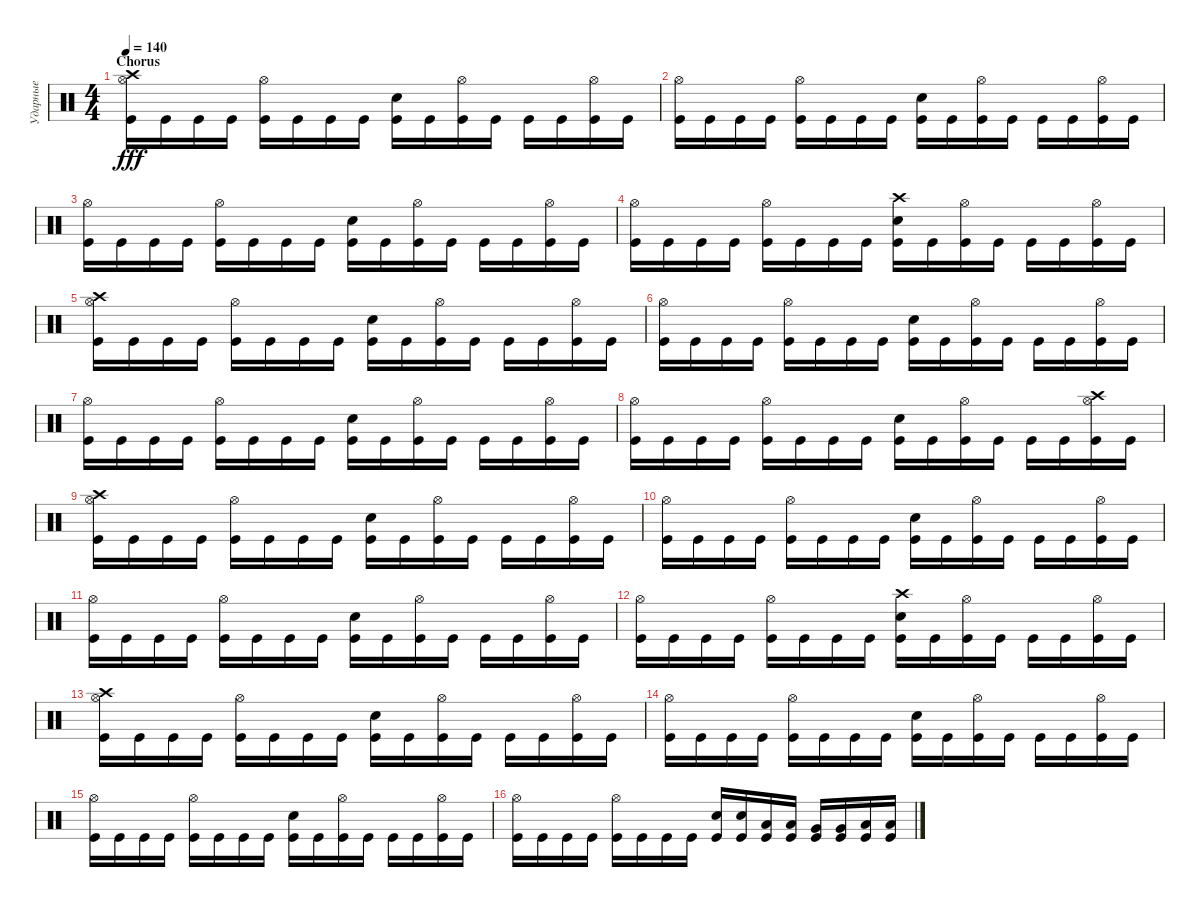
\track ("Ударные" "Ударные") {instrument percussion}
\staff {score}
\articulation defaults
\ts (4 4)
\section ("" "Chorus")
\tempo 140
\clef neutral
\ks c
("Kick (hit)" "Hi-Hat (open)" "Crash high (hit)").16{dy fff} "Kick (hit)".16 "Kick (hit)".16 "Kick (hit)".16 ("Kick (hit)" "Hi-Hat (open)").16 "Kick (hit)".16 "Kick (hit)".16 "Kick (hit)".16 ("Kick (hit)" "Snare (hit) 2").16 "Kick (hit)".16 ("Kick (hit)" "Hi-Hat (open)").16 "Kick (hit)".16 "Kick (hit)".16 "Kick (hit)".16 ("Kick (hit)" "Hi-Hat (open)").16 "Kick (hit)".16 |
("Kick (hit)" "Hi-Hat (open)").16 "Kick (hit)".16 "Kick (hit)".16 "Kick (hit)".16 ("Kick (hit)" "Hi-Hat (open)").16 "Kick (hit)".16 "Kick (hit)".16 "Kick (hit)".16 ("Kick (hit)" "Snare (hit) 2").16 "Kick (hit)".16 ("Kick (hit)" "Hi-Hat (open)").16 "Kick (hit)".16 "Kick (hit)".16 "Kick (hit)".16 ("Kick (hit)" "Hi-Hat (open)").16 "Kick (hit)".16 |
("Kick (hit)" "Hi-Hat (open)").16 "Kick (hit)".16 "Kick (hit)".16 "Kick (hit)".16 ("Kick (hit)" "Hi-Hat (open)").16 "Kick (hit)".16 "Kick (hit)".16 "Kick (hit)".16 ("Kick (hit)" "Snare (hit) 2").16 "Kick (hit)".16 ("Kick (hit)" "Hi-Hat (open)").16 "Kick (hit)".16 "Kick (hit)".16 "Kick (hit)".16 ("Kick (hit)" "Hi-Hat (open)").16 "Kick (hit)".16 |
("Kick (hit)" "Hi-Hat (open)").16 "Kick (hit)".16 "Kick (hit)".16 "Kick (hit)".16 ("Kick (hit)" "Hi-Hat (open)").16 "Kick (hit)".16 "Kick (hit)".16 "Kick (hit)".16 ("Kick (hit)" "Snare (hit) 2" "Crash high (hit)").16 "Kick (hit)".16 ("Kick (hit)" "Hi-Hat (open)").16 "Kick (hit)".16 "Kick (hit)".16 "Kick (hit)".16 ("Kick (hit)" "Hi-Hat (open)").16 "Kick (hit)".16 |
("Kick (hit)" "Crash high (hit)" "Hi-Hat (open)").16 "Kick (hit)".16 "Kick (hit)".16 "Kick (hit)".16 ("Kick (hit)" "Hi-Hat (open)").16 "Kick (hit)".16 "Kick (hit)".16 "Kick (hit)".16 ("Kick (hit)" "Snare (hit) 2").16 "Kick (hit)".16 ("Kick (hit)" "Hi-Hat (open)").16 "Kick (hit)".16 "Kick (hit)".16 "Kick (hit)".16 ("Kick (hit)" "Hi-Hat (open)").16 "Kick (hit)".16 |
("Kick (hit)" "Hi-Hat (open)").16 "Kick (hit)".16 "Kick (hit)".16 "Kick (hit)".16 ("Kick (hit)" "Hi-Hat (open)").16 "Kick (hit)".16 "Kick (hit)".16 "Kick (hit)".16 ("Kick (hit)" "Snare (hit) 2").16 "Kick (hit)".16 ("Kick (hit)" "Hi-Hat (open)").16 "Kick (hit)".16 "Kick (hit)".16 "Kick (hit)".16 ("Kick (hit)" "Hi-Hat (open)").16 "Kick (hit)".16 |
("Kick (hit)" "Hi-Hat (open)").16 "Kick (hit)".16 "Kick (hit)".16 "Kick (hit)".16 ("Kick (hit)" "Hi-Hat (open)").16 "Kick (hit)".16 "Kick (hit)".16 "Kick (hit)".16 ("Kick (hit)" "Snare (hit) 2").16 "Kick (hit)".16 ("Kick (hit)" "Hi-Hat (open)").16 "Kick (hit)".16 "Kick (hit)".16 "Kick (hit)".16 ("Kick (hit)" "Hi-Hat (open)").16 "Kick (hit)".16 |
("Kick (hit)" "Hi-Hat (open)").16 "Kick (hit)".16 "Kick (hit)".16 "Kick (hit)".16 ("Kick (hit)" "Hi-Hat (open)").16 "Kick (hit)".16 "Kick (hit)".16 "Kick (hit)".16 ("Kick (hit)" "Snare (hit) 2").16 "Kick (hit)".16 ("Kick (hit)" "Hi-Hat (open)").16 "Kick (hit)".16 "Kick (hit)".16 "Kick (hit)".16 ("Kick (hit)" "Crash high (hit)" "Hi-Hat (open)").16 "Kick (hit)".16 |
("Kick (hit)" "Hi-Hat (open)" "Crash high (hit)").16 "Kick (hit)".16 "Kick (hit)".16 "Kick (hit)".16 ("Kick (hit)" "Hi-Hat (open)").16 "Kick (hit)".16 "Kick (hit)".16 "Kick (hit)".16 ("Kick (hit)" "Snare (hit) 2").16 "Kick (hit)".16 ("Kick (hit)" "Hi-Hat (open)").16 "Kick (hit)".16 "Kick (hit)".16 "Kick (hit)".16 ("Kick (hit)" "Hi-Hat (open)").16 "Kick (hit)".16 |
("Kick (hit)" "Hi-Hat (open)").16 "Kick (hit)".16 "Kick (hit)".16 "Kick (hit)".16 ("Kick (hit)" "Hi-Hat (open)").16 "Kick (hit)".16 "Kick (hit)".16 "Kick (hit)".16 ("Kick (hit)" "Snare (hit) 2").16 "Kick (hit)".16 ("Kick (hit)" "Hi-Hat (open)").16 "Kick (hit)".16 "Kick (hit)".16 "Kick (hit)".16 ("Kick (hit)" "Hi-Hat (open)").16 "Kick (hit)".16 |
("Kick (hit)" "Hi-Hat (open)").16 "Kick (hit)".16 "Kick (hit)".16 "Kick (hit)".16 ("Kick (hit)" "Hi-Hat (open)").16 "Kick (hit)".16 "Kick (hit)".16 "Kick (hit)".16 ("Kick (hit)" "Snare (hit) 2").16 "Kick (hit)".16 ("Kick (hit)" "Hi-Hat (open)").16 "Kick (hit)".16 "Kick (hit)".16 "Kick (hit)".16 ("Kick (hit)" "Hi-Hat (open)").16 "Kick (hit)".16 |
("Kick (hit)" "Hi-Hat (open)").16 "Kick (hit)".16 "Kick (hit)".16 "Kick (hit)".16 ("Kick (hit)" "Hi-Hat (open)").16 "Kick (hit)".16 "Kick (hit)".16 "Kick (hit)".16 ("Kick (hit)" "Snare (hit) 2" "Crash high (hit)").16 "Kick (hit)".16 ("Kick (hit)" "Hi-Hat (open)").16 "Kick (hit)".16 "Kick (hit)".16 "Kick (hit)".16 ("Kick (hit)" "Hi-Hat (open)").16 "Kick (hit)".16 |
("Kick (hit)" "Crash high (hit)" "Hi-Hat (open)").16 "Kick (hit)".16 "Kick (hit)".16 "Kick (hit)".16 ("Kick (hit)" "Hi-Hat (open)").16 "Kick (hit)".16 "Kick (hit)".16 "Kick (hit)".16 ("Kick (hit)" "Snare (hit) 2").16 "Kick (hit)".16 ("Kick (hit)" "Hi-Hat (open)").16 "Kick (hit)".16 "Kick (hit)".16 "Kick (hit)".16 ("Kick (hit)" "Hi-Hat (open)").16 "Kick (hit)".16 |
("Kick (hit)" "Hi-Hat (open)").16 "Kick (hit)".16 "Kick (hit)".16 "Kick (hit)".16 ("Kick (hit)" "Hi-Hat (open)").16 "Kick (hit)".16 "Kick (hit)".16 "Kick (hit)".16 ("Kick (hit)" "Snare (hit) 2").16 "Kick (hit)".16 ("Kick (hit)" "Hi-Hat (open)").16 "Kick (hit)".16 "Kick (hit)".16 "Kick (hit)".16 ("Kick (hit)" "Hi-Hat (open)").16 "Kick (hit)".16 |
("Kick (hit)" "Hi-Hat (open)").16 "Kick (hit)".16 "Kick (hit)".16 "Kick (hit)".16 ("Kick (hit)" "Hi-Hat (open)").16 "Kick (hit)".16 "Kick (hit)".16 "Kick (hit)".16 ("Kick (hit)" "Snare (hit) 2").16 "Kick (hit)".16 ("Kick (hit)" "Hi-Hat (open)").16 "Kick (hit)".16 "Kick (hit)".16 "Kick (hit)".16 ("Kick (hit)" "Hi-Hat (open)").16 "Kick (hit)".16 |
("Kick (hit)" "Hi-Hat (open)").16 "Kick (hit)".16 "Kick (hit)".16 "Kick (hit)".16 ("Kick (hit)" "Hi-Hat (open)").16 "Kick (hit)".16 "Kick (hit)".16 "Kick (hit)".16 ("Kick (hit)" "Snare (hit) 2").16 ("Kick (hit)" "Snare (hit) 2").16 ("Kick (hit)" "Low Tom (hit)").16 ("Kick (hit)" "Low Tom (hit)").16 ("Kick (hit)" "Very Low Tom (hit)").16 ("Kick (hit)" "Very Low Tom (hit)").16 ("Kick (hit)" "Low Floor Tom (hit)").16 ("Kick (hit)" "Low Floor Tom (hit)").16
